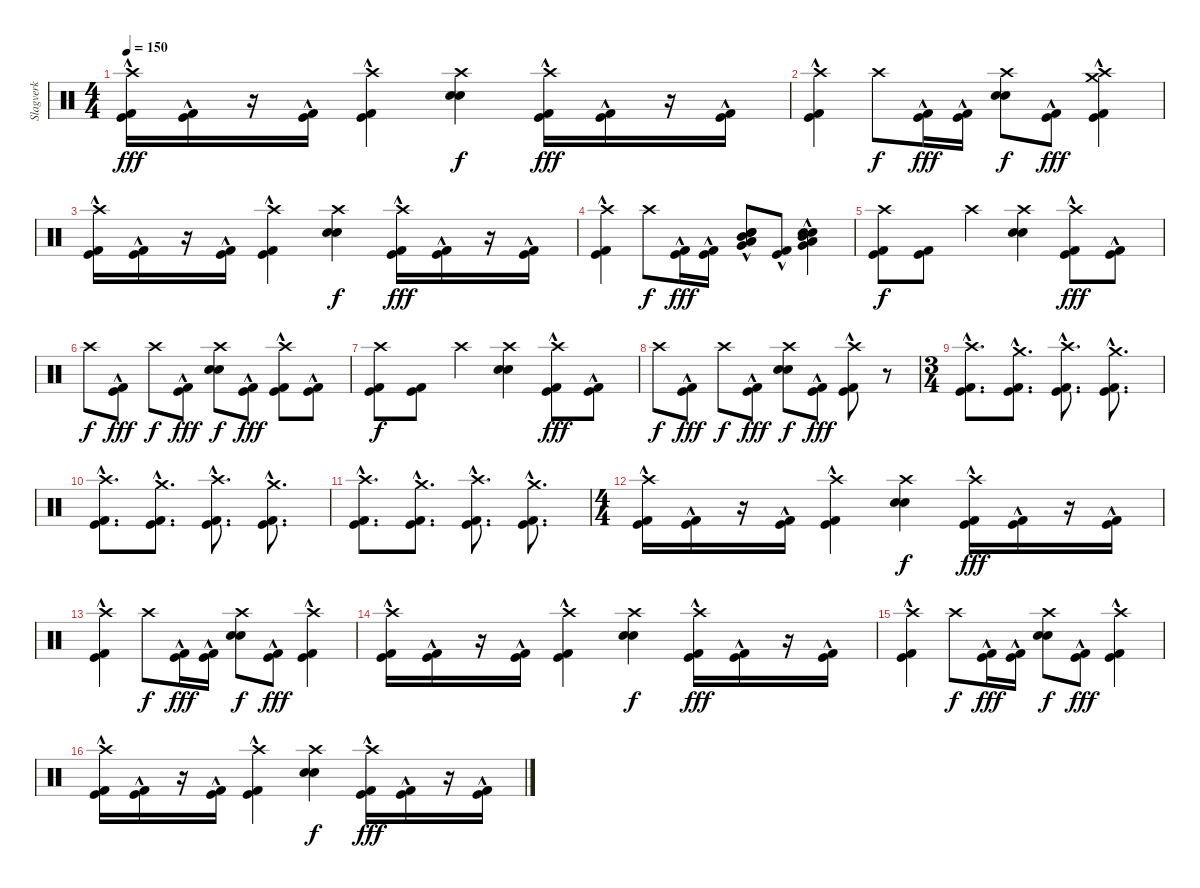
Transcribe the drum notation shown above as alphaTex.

\track ("Slagverk" "Slagverk") {instrument percussion}
\staff {score}
\articulation defaults
\ts (4 4)
\tempo 150
\clef neutral
\ks c
("Crash high (hit)" "Kick (hit)"{hac} "Kick (hit) 2"{hac}).16{dy fff} ("Kick (hit)"{hac} "Kick (hit) 2"{hac}).16 r.16 ("Kick (hit)"{hac} "Kick (hit) 2"{hac}).16 ("Crash high (hit)" "Kick (hit)"{hac} "Kick (hit) 2"{hac}).4 ("Crash high (hit)" "Electric Snare (hit)" "Snare (hit) 2").4{dy f} ("Crash high (hit)" "Kick (hit)"{hac} "Kick (hit) 2"{hac}).16{dy fff} ("Kick (hit)"{hac} "Kick (hit) 2"{hac}).16 r.16 ("Kick (hit)"{hac} "Kick (hit) 2"{hac}).16 |
("Crash high (hit)" "Kick (hit)"{hac} "Kick (hit) 2"{hac}).4 "Crash high (hit)".8{dy f} ("Kick (hit)"{hac} "Kick (hit) 2"{hac}).16{dy fff} ("Kick (hit)"{hac} "Kick (hit) 2"{hac}).16 ("Crash high (hit)" "Electric Snare (hit)" "Snare (hit) 2").8{dy f} ("Kick (hit)"{hac} "Kick (hit) 2"{hac}).8{dy fff} ("Crash high (hit)" "Crash medium (hit)" "Kick (hit)"{hac} "Kick (hit) 2"{hac}).4 |
("Crash high (hit)" "Kick (hit)"{hac} "Kick (hit) 2"{hac}).16 ("Kick (hit)"{hac} "Kick (hit) 2"{hac}).16 r.16 ("Kick (hit)"{hac} "Kick (hit) 2"{hac}).16 ("Crash high (hit)" "Kick (hit)"{hac} "Kick (hit) 2"{hac}).4 ("Crash high (hit)" "Electric Snare (hit)" "Snare (hit) 2").4{dy f} ("Crash high (hit)" "Kick (hit)"{hac} "Kick (hit) 2"{hac}).16{dy fff} ("Kick (hit)"{hac} "Kick (hit) 2"{hac}).16 r.16 ("Kick (hit)"{hac} "Kick (hit) 2"{hac}).16 |
("Crash high (hit)" "Kick (hit)"{hac} "Kick (hit) 2"{hac}).4 "Crash high (hit)".8{dy f} ("Kick (hit)"{hac} "Kick (hit) 2"{hac}).16{dy fff} ("Kick (hit)"{hac} "Kick (hit) 2"{hac}).16 ("Very Low Tom (hit)"{hac} "Electric Snare (hit)" "Snare (hit) 2" "Low Tom (hit)"{hac} "Mid Tom (hit)"{hac}).8 ("Kick (hit)"{hac} "Kick (hit) 2"{hac}).8 ("Very Low Tom (hit)"{hac} "Electric Snare (hit)" "Snare (hit) 2" "Low Tom (hit)"{hac} "Mid Tom (hit)"{hac}).4 |
("Crash high (hit)" "Kick (hit)" "Kick (hit) 2").8{dy f} ("Kick (hit)" "Kick (hit) 2").8 "Crash high (hit)".4 ("Crash high (hit)" "Electric Snare (hit)" "Snare (hit) 2").4 ("Crash high (hit)" "Kick (hit)"{hac} "Kick (hit) 2"{hac}).8{dy fff} ("Kick (hit)"{hac} "Kick (hit) 2"{hac}).8 |
"Crash high (hit)".8{dy f} ("Kick (hit)"{hac} "Kick (hit) 2"{hac}).8{dy fff} "Crash high (hit)".8{dy f} ("Kick (hit)"{hac} "Kick (hit) 2"{hac}).8{dy fff} ("Crash high (hit)" "Electric Snare (hit)" "Snare (hit) 2").8{dy f} ("Kick (hit)"{hac} "Kick (hit) 2"{hac}).8{dy fff} ("Crash high (hit)" "Kick (hit)"{hac} "Kick (hit) 2"{hac}).8 ("Kick (hit)"{hac} "Kick (hit) 2"{hac}).8 |
("Crash high (hit)" "Kick (hit)" "Kick (hit) 2").8{dy f} ("Kick (hit)" "Kick (hit) 2").8 "Crash high (hit)".4 ("Crash high (hit)" "Electric Snare (hit)" "Snare (hit) 2").4 ("Crash high (hit)" "Kick (hit)"{hac} "Kick (hit) 2"{hac}).8{dy fff} ("Kick (hit)"{hac} "Kick (hit) 2"{hac}).8 |
"Crash high (hit)".8{dy f} ("Kick (hit)"{hac} "Kick (hit) 2"{hac}).8{dy fff} "Crash high (hit)".8{dy f} ("Kick (hit)"{hac} "Kick (hit) 2"{hac}).8{dy fff} ("Crash high (hit)" "Electric Snare (hit)" "Snare (hit) 2").8{dy f} ("Kick (hit)"{hac} "Kick (hit) 2"{hac}).8{dy fff} ("Crash high (hit)" "Kick (hit)"{hac} "Kick (hit) 2"{hac}).8 r.8 |
\ts (3 4)
("Crash high (hit)" "Kick (hit)"{hac} "Kick (hit) 2"{hac}).8{d} ("Crash medium (hit)" "Kick (hit)"{hac} "Kick (hit) 2"{hac}).8{d} ("Crash high (hit)" "Kick (hit)"{hac} "Kick (hit) 2"{hac}).8{d} ("Crash medium (hit)" "Kick (hit)"{hac} "Kick (hit) 2"{hac}).8{d} |
("Crash high (hit)" "Kick (hit)"{hac} "Kick (hit) 2"{hac}).8{d} ("Crash medium (hit)" "Kick (hit)"{hac} "Kick (hit) 2"{hac}).8{d} ("Crash high (hit)" "Kick (hit)"{hac} "Kick (hit) 2"{hac}).8{d} ("Crash medium (hit)" "Kick (hit)"{hac} "Kick (hit) 2"{hac}).8{d} |
("Crash high (hit)" "Kick (hit)"{hac} "Kick (hit) 2"{hac}).8{d} ("Crash medium (hit)" "Kick (hit)"{hac} "Kick (hit) 2"{hac}).8{d} ("Crash high (hit)" "Kick (hit)"{hac} "Kick (hit) 2"{hac}).8{d} ("Crash medium (hit)" "Kick (hit)"{hac} "Kick (hit) 2"{hac}).8{d} |
\ts (4 4)
("Crash high (hit)" "Kick (hit)"{hac} "Kick (hit) 2"{hac}).16 ("Kick (hit)"{hac} "Kick (hit) 2"{hac}).16 r.16 ("Kick (hit)"{hac} "Kick (hit) 2"{hac}).16 ("Crash high (hit)" "Kick (hit)"{hac} "Kick (hit) 2"{hac}).4 ("Crash high (hit)" "Electric Snare (hit)" "Snare (hit) 2").4{dy f} ("Crash high (hit)" "Kick (hit)"{hac} "Kick (hit) 2"{hac}).16{dy fff} ("Kick (hit)"{hac} "Kick (hit) 2"{hac}).16 r.16 ("Kick (hit)"{hac} "Kick (hit) 2"{hac}).16 |
("Crash high (hit)" "Kick (hit)"{hac} "Kick (hit) 2"{hac}).4 "Crash high (hit)".8{dy f} ("Kick (hit)"{hac} "Kick (hit) 2"{hac}).16{dy fff} ("Kick (hit)"{hac} "Kick (hit) 2"{hac}).16 ("Crash high (hit)" "Electric Snare (hit)" "Snare (hit) 2").8{dy f} ("Kick (hit)"{hac} "Kick (hit) 2"{hac}).8{dy fff} ("Crash high (hit)" "Kick (hit)"{hac} "Kick (hit) 2"{hac}).4 |
("Crash high (hit)" "Kick (hit)"{hac} "Kick (hit) 2"{hac}).16 ("Kick (hit)"{hac} "Kick (hit) 2"{hac}).16 r.16 ("Kick (hit)"{hac} "Kick (hit) 2"{hac}).16 ("Crash high (hit)" "Kick (hit)"{hac} "Kick (hit) 2"{hac}).4 ("Crash high (hit)" "Electric Snare (hit)" "Snare (hit) 2").4{dy f} ("Crash high (hit)" "Kick (hit)"{hac} "Kick (hit) 2"{hac}).16{dy fff} ("Kick (hit)"{hac} "Kick (hit) 2"{hac}).16 r.16 ("Kick (hit)"{hac} "Kick (hit) 2"{hac}).16 |
("Crash high (hit)" "Kick (hit)"{hac} "Kick (hit) 2"{hac}).4 "Crash high (hit)".8{dy f} ("Kick (hit)"{hac} "Kick (hit) 2"{hac}).16{dy fff} ("Kick (hit)"{hac} "Kick (hit) 2"{hac}).16 ("Crash high (hit)" "Electric Snare (hit)" "Snare (hit) 2").8{dy f} ("Kick (hit)"{hac} "Kick (hit) 2"{hac}).8{dy fff} ("Crash high (hit)" "Kick (hit)"{hac} "Kick (hit) 2"{hac}).4 |
("Crash high (hit)" "Kick (hit)"{hac} "Kick (hit) 2"{hac}).16 ("Kick (hit)"{hac} "Kick (hit) 2"{hac}).16 r.16 ("Kick (hit)"{hac} "Kick (hit) 2"{hac}).16 ("Crash high (hit)" "Kick (hit)"{hac} "Kick (hit) 2"{hac}).4 ("Crash high (hit)" "Electric Snare (hit)" "Snare (hit) 2").4{dy f} ("Crash high (hit)" "Kick (hit)"{hac} "Kick (hit) 2"{hac}).16{dy fff} ("Kick (hit)"{hac} "Kick (hit) 2"{hac}).16 r.16 ("Kick (hit)"{hac} "Kick (hit) 2"{hac}).16
